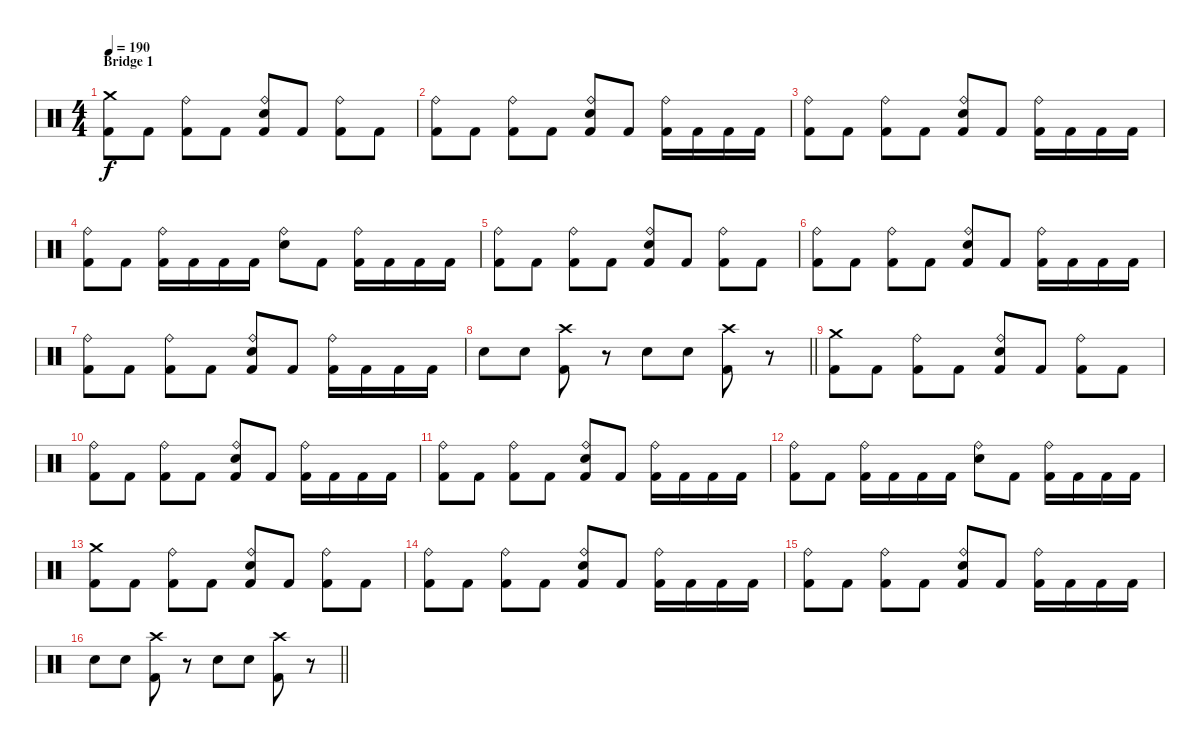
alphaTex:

\track "" {instrument percussion}
\staff {score}
\articulation defaults
\ts (4 4)
\section ("" "Bridge 1")
\tempo 190
\clef neutral
\ks c
("Crash medium (hit)" "Kick (hit) 2").8{dy f} "Kick (hit) 2".8 ("Ride (bell)" "Kick (hit) 2").8 "Kick (hit) 2".8 ("Ride (bell)" "Electric Snare (hit)" "Kick (hit) 2").8 "Kick (hit) 2".8 ("Ride (bell)" "Kick (hit) 2").8 "Kick (hit) 2".8 |
("Ride (bell)" "Kick (hit) 2").8 "Kick (hit) 2".8 ("Ride (bell)" "Kick (hit) 2").8 "Kick (hit) 2".8 ("Ride (bell)" "Electric Snare (hit)" "Kick (hit) 2").8 "Kick (hit) 2".8 ("Ride (bell)" "Kick (hit) 2").16 "Kick (hit) 2".16 "Kick (hit) 2".16 "Kick (hit) 2".16 |
("Ride (bell)" "Kick (hit) 2").8 "Kick (hit) 2".8 ("Ride (bell)" "Kick (hit) 2").8 "Kick (hit) 2".8 ("Ride (bell)" "Electric Snare (hit)" "Kick (hit) 2").8 "Kick (hit) 2".8 ("Ride (bell)" "Kick (hit) 2").16 "Kick (hit) 2".16 "Kick (hit) 2".16 "Kick (hit) 2".16 |
("Ride (bell)" "Kick (hit) 2").8 "Kick (hit) 2".8 ("Ride (bell)" "Kick (hit) 2").16 "Kick (hit) 2".16 "Kick (hit) 2".16 "Kick (hit) 2".16 ("Ride (bell)" "Electric Snare (hit)").8 "Kick (hit) 2".8 ("Ride (bell)" "Kick (hit) 2").16 "Kick (hit) 2".16 "Kick (hit) 2".16 "Kick (hit) 2".16 |
("Ride (bell)" "Kick (hit) 2").8 "Kick (hit) 2".8 ("Ride (bell)" "Kick (hit) 2").8 "Kick (hit) 2".8 ("Ride (bell)" "Electric Snare (hit)" "Kick (hit) 2").8 "Kick (hit) 2".8 ("Ride (bell)" "Kick (hit) 2").8 "Kick (hit) 2".8 |
("Ride (bell)" "Kick (hit) 2").8 "Kick (hit) 2".8 ("Ride (bell)" "Kick (hit) 2").8 "Kick (hit) 2".8 ("Ride (bell)" "Electric Snare (hit)" "Kick (hit) 2").8 "Kick (hit) 2".8 ("Ride (bell)" "Kick (hit) 2").16 "Kick (hit) 2".16 "Kick (hit) 2".16 "Kick (hit) 2".16 |
("Ride (bell)" "Kick (hit) 2").8 "Kick (hit) 2".8 ("Ride (bell)" "Kick (hit) 2").8 "Kick (hit) 2".8 ("Ride (bell)" "Electric Snare (hit)" "Kick (hit) 2").8 "Kick (hit) 2".8 ("Ride (bell)" "Kick (hit) 2").16 "Kick (hit) 2".16 "Kick (hit) 2".16 "Kick (hit) 2".16 |
\barLineRight lightlight "Electric Snare (hit)".8 "Electric Snare (hit)".8
("Crash high (hit)" "Kick (hit) 2").8 r.8 "Electric Snare (hit)".8 "Electric Snare (hit)".8 ("Crash high (hit)" "Kick (hit) 2").8 r.8 |
("Crash medium (hit)" "Kick (hit) 2").8 "Kick (hit) 2".8 ("Ride (bell)" "Kick (hit) 2").8 "Kick (hit) 2".8 ("Ride (bell)" "Electric Snare (hit)" "Kick (hit) 2").8 "Kick (hit) 2".8 ("Ride (bell)" "Kick (hit) 2").8 "Kick (hit) 2".8 |
("Ride (bell)" "Kick (hit) 2").8 "Kick (hit) 2".8 ("Ride (bell)" "Kick (hit) 2").8 "Kick (hit) 2".8 ("Ride (bell)" "Electric Snare (hit)" "Kick (hit) 2").8 "Kick (hit) 2".8 ("Ride (bell)" "Kick (hit) 2").16 "Kick (hit) 2".16 "Kick (hit) 2".16 "Kick (hit) 2".16 |
("Ride (bell)" "Kick (hit) 2").8 "Kick (hit) 2".8 ("Ride (bell)" "Kick (hit) 2").8 "Kick (hit) 2".8 ("Ride (bell)" "Electric Snare (hit)" "Kick (hit) 2").8 "Kick (hit) 2".8 ("Ride (bell)" "Kick (hit) 2").16 "Kick (hit) 2".16 "Kick (hit) 2".16 "Kick (hit) 2".16 |
("Ride (bell)" "Kick (hit) 2").8 "Kick (hit) 2".8 ("Ride (bell)" "Kick (hit) 2").16 "Kick (hit) 2".16 "Kick (hit) 2".16 "Kick (hit) 2".16 ("Ride (bell)" "Electric Snare (hit)").8 "Kick (hit) 2".8 ("Ride (bell)" "Kick (hit) 2").16 "Kick (hit) 2".16 "Kick (hit) 2".16 "Kick (hit) 2".16 |
("Crash medium (hit)" "Kick (hit) 2").8 "Kick (hit) 2".8 ("Ride (bell)" "Kick (hit) 2").8 "Kick (hit) 2".8 ("Ride (bell)" "Electric Snare (hit)" "Kick (hit) 2").8 "Kick (hit) 2".8 ("Ride (bell)" "Kick (hit) 2").8 "Kick (hit) 2".8 |
("Ride (bell)" "Kick (hit) 2").8 "Kick (hit) 2".8 ("Ride (bell)" "Kick (hit) 2").8 "Kick (hit) 2".8 ("Ride (bell)" "Electric Snare (hit)" "Kick (hit) 2").8 "Kick (hit) 2".8 ("Ride (bell)" "Kick (hit) 2").16 "Kick (hit) 2".16 "Kick (hit) 2".16 "Kick (hit) 2".16 |
("Ride (bell)" "Kick (hit) 2").8 "Kick (hit) 2".8 ("Ride (bell)" "Kick (hit) 2").8 "Kick (hit) 2".8 ("Ride (bell)" "Electric Snare (hit)" "Kick (hit) 2").8 "Kick (hit) 2".8 ("Ride (bell)" "Kick (hit) 2").16 "Kick (hit) 2".16 "Kick (hit) 2".16 "Kick (hit) 2".16 |
\barLineRight lightlight "Electric Snare (hit)".8 "Electric Snare (hit)".8
("Crash high (hit)" "Kick (hit) 2").8 r.8 "Electric Snare (hit)".8 "Electric Snare (hit)".8 ("Crash high (hit)" "Kick (hit) 2").8 r.8
